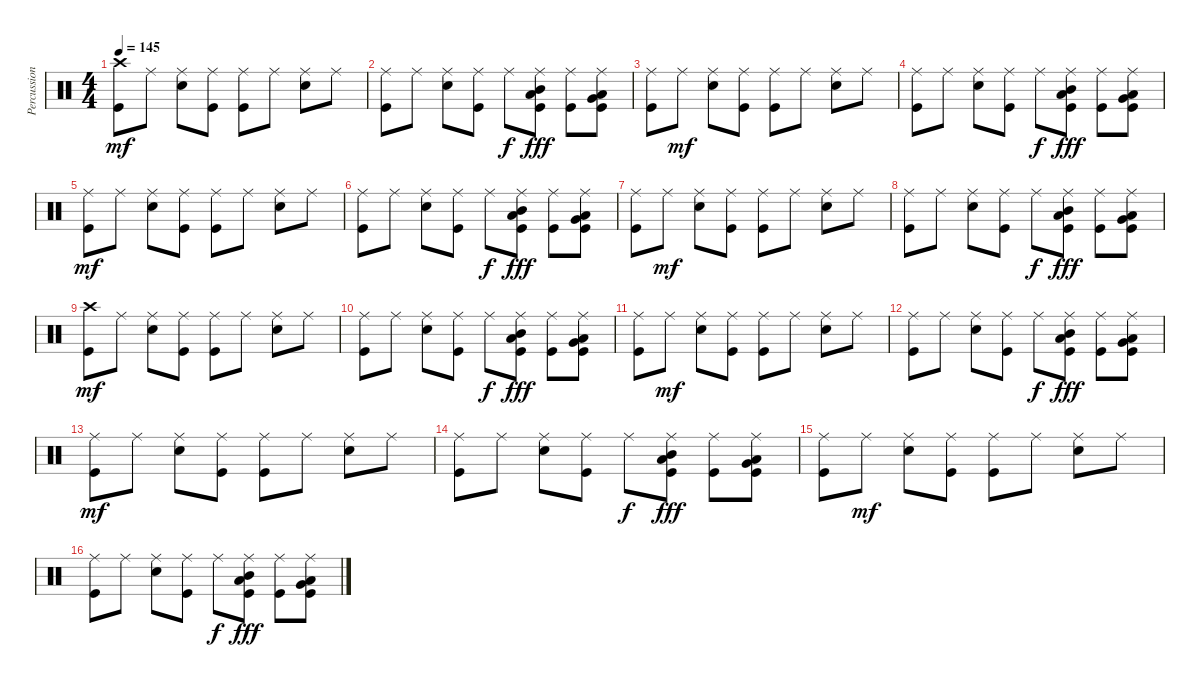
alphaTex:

\track ("Percussion" "Percussion") {instrument percussion}
\staff {score}
\articulation defaults
\ts (4 4)
\tempo 145
\clef neutral
\ks c
("Crash high (hit)" "Kick (hit)").8{dy mf} "Ride (middle)".8 ("Ride (middle)" "Snare (hit) 2").8 ("Ride (middle)" "Kick (hit)").8 ("Ride (middle)" "Kick (hit)").8 "Ride (middle)".8 ("Ride (middle)" "Snare (hit) 2").8 "Ride (middle)".8 |
("Ride (middle)" "Kick (hit)").8 "Ride (middle)".8 ("Ride (middle)" "Snare (hit) 2").8 ("Ride (middle)" "Kick (hit)").8 "Ride (middle)".8{dy f} ("Ride (middle)" "Mid Tom (hit)" "Low Tom (hit)" "Kick (hit)").8{dy fff} ("Ride (middle)" "Kick (hit)").8 ("Ride (middle)" "Very Low Tom (hit)" "Low Tom (hit)" "Kick (hit)").8 |
("Ride (middle)" "Kick (hit)").8 "Ride (middle)".8{dy mf} ("Ride (middle)" "Snare (hit) 2").8 ("Ride (middle)" "Kick (hit)").8 ("Ride (middle)" "Kick (hit)").8 "Ride (middle)".8 ("Ride (middle)" "Snare (hit) 2").8 "Ride (middle)".8 |
("Ride (middle)" "Kick (hit)").8 "Ride (middle)".8 ("Ride (middle)" "Snare (hit) 2").8 ("Ride (middle)" "Kick (hit)").8 "Ride (middle)".8{dy f} ("Ride (middle)" "Mid Tom (hit)" "Low Tom (hit)" "Kick (hit)").8{dy fff} ("Ride (middle)" "Kick (hit)").8 ("Ride (middle)" "Very Low Tom (hit)" "Low Tom (hit)" "Kick (hit)").8 |
("Ride (middle)" "Kick (hit)").8{dy mf} "Ride (middle)".8 ("Ride (middle)" "Snare (hit) 2").8 ("Ride (middle)" "Kick (hit)").8 ("Ride (middle)" "Kick (hit)").8 "Ride (middle)".8 ("Ride (middle)" "Snare (hit) 2").8 "Ride (middle)".8 |
("Ride (middle)" "Kick (hit)").8 "Ride (middle)".8 ("Ride (middle)" "Snare (hit) 2").8 ("Ride (middle)" "Kick (hit)").8 "Ride (middle)".8{dy f} ("Ride (middle)" "Mid Tom (hit)" "Low Tom (hit)" "Kick (hit)").8{dy fff} ("Ride (middle)" "Kick (hit)").8 ("Ride (middle)" "Very Low Tom (hit)" "Low Tom (hit)" "Kick (hit)").8 |
("Ride (middle)" "Kick (hit)").8 "Ride (middle)".8{dy mf} ("Ride (middle)" "Snare (hit) 2").8 ("Ride (middle)" "Kick (hit)").8 ("Ride (middle)" "Kick (hit)").8 "Ride (middle)".8 ("Ride (middle)" "Snare (hit) 2").8 "Ride (middle)".8 |
("Ride (middle)" "Kick (hit)").8 "Ride (middle)".8 ("Ride (middle)" "Snare (hit) 2").8 ("Ride (middle)" "Kick (hit)").8 "Ride (middle)".8{dy f} ("Ride (middle)" "Mid Tom (hit)" "Low Tom (hit)" "Kick (hit)").8{dy fff} ("Ride (middle)" "Kick (hit)").8 ("Ride (middle)" "Very Low Tom (hit)" "Low Tom (hit)" "Kick (hit)").8 |
("Crash high (hit)" "Kick (hit)").8{dy mf} "Ride (middle)".8 ("Ride (middle)" "Snare (hit) 2").8 ("Ride (middle)" "Kick (hit)").8 ("Ride (middle)" "Kick (hit)").8 "Ride (middle)".8 ("Ride (middle)" "Snare (hit) 2").8 "Ride (middle)".8 |
("Ride (middle)" "Kick (hit)").8 "Ride (middle)".8 ("Ride (middle)" "Snare (hit) 2").8 ("Ride (middle)" "Kick (hit)").8 "Ride (middle)".8{dy f} ("Ride (middle)" "Mid Tom (hit)" "Low Tom (hit)" "Kick (hit)").8{dy fff} ("Ride (middle)" "Kick (hit)").8 ("Ride (middle)" "Very Low Tom (hit)" "Low Tom (hit)" "Kick (hit)").8 |
("Ride (middle)" "Kick (hit)").8 "Ride (middle)".8{dy mf} ("Ride (middle)" "Snare (hit) 2").8 ("Ride (middle)" "Kick (hit)").8 ("Ride (middle)" "Kick (hit)").8 "Ride (middle)".8 ("Ride (middle)" "Snare (hit) 2").8 "Ride (middle)".8 |
("Ride (middle)" "Kick (hit)").8 "Ride (middle)".8 ("Ride (middle)" "Snare (hit) 2").8 ("Ride (middle)" "Kick (hit)").8 "Ride (middle)".8{dy f} ("Ride (middle)" "Mid Tom (hit)" "Low Tom (hit)" "Kick (hit)").8{dy fff} ("Ride (middle)" "Kick (hit)").8 ("Ride (middle)" "Very Low Tom (hit)" "Low Tom (hit)" "Kick (hit)").8 |
("Ride (middle)" "Kick (hit)").8{dy mf} "Ride (middle)".8 ("Ride (middle)" "Snare (hit) 2").8 ("Ride (middle)" "Kick (hit)").8 ("Ride (middle)" "Kick (hit)").8 "Ride (middle)".8 ("Ride (middle)" "Snare (hit) 2").8 "Ride (middle)".8 |
("Ride (middle)" "Kick (hit)").8 "Ride (middle)".8 ("Ride (middle)" "Snare (hit) 2").8 ("Ride (middle)" "Kick (hit)").8 "Ride (middle)".8{dy f} ("Ride (middle)" "Mid Tom (hit)" "Low Tom (hit)" "Kick (hit)").8{dy fff} ("Ride (middle)" "Kick (hit)").8 ("Ride (middle)" "Very Low Tom (hit)" "Low Tom (hit)" "Kick (hit)").8 |
("Ride (middle)" "Kick (hit)").8 "Ride (middle)".8{dy mf} ("Ride (middle)" "Snare (hit) 2").8 ("Ride (middle)" "Kick (hit)").8 ("Ride (middle)" "Kick (hit)").8 "Ride (middle)".8 ("Ride (middle)" "Snare (hit) 2").8 "Ride (middle)".8 |
("Ride (middle)" "Kick (hit)").8 "Ride (middle)".8 ("Ride (middle)" "Snare (hit) 2").8 ("Ride (middle)" "Kick (hit)").8 "Ride (middle)".8{dy f} ("Ride (middle)" "Mid Tom (hit)" "Low Tom (hit)" "Kick (hit)").8{dy fff} ("Ride (middle)" "Kick (hit)").8 ("Ride (middle)" "Very Low Tom (hit)" "Low Tom (hit)" "Kick (hit)").8
